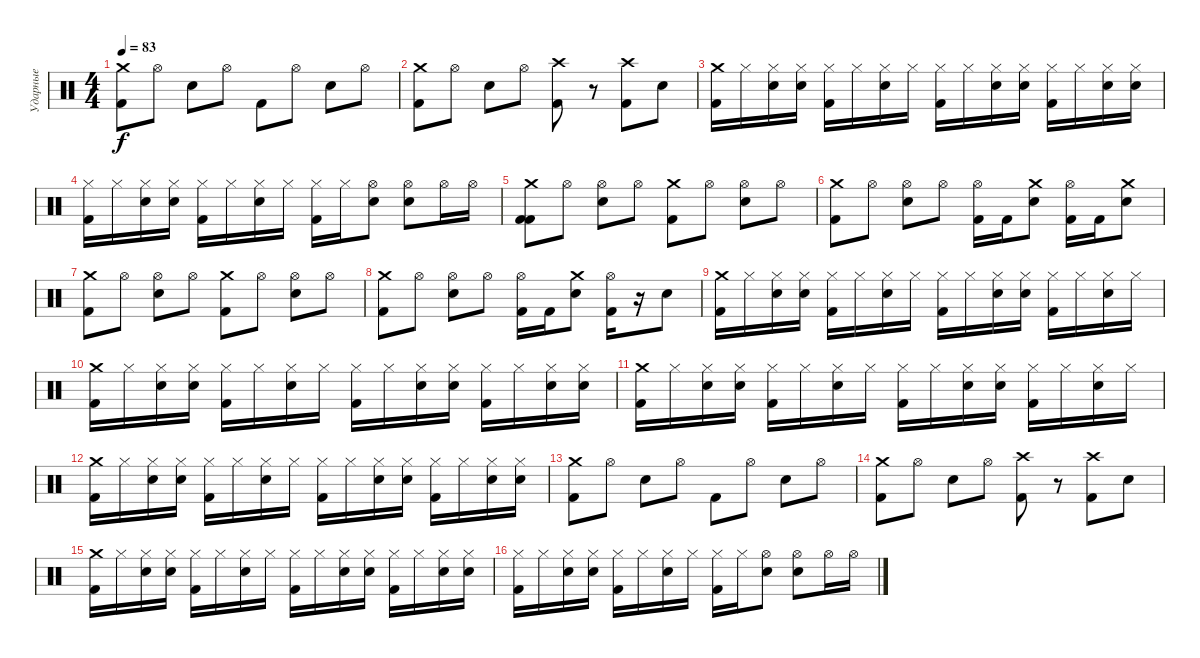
\track ("Ударные" "Ударные") {instrument percussion}
\staff {score}
\articulation defaults
\ts (4 4)
\tempo 83
\clef neutral
\ks c
("Crash medium (hit)" "Kick (hit) 2").8{dy f} "Hi-Hat (open)".8 "Snare (hit) 2".8 "Hi-Hat (open)".8 "Kick (hit) 2".8 "Hi-Hat (open)".8 "Snare (hit) 2".8 "Hi-Hat (open)".8 |
("Crash medium (hit)" "Kick (hit) 2").8 "Hi-Hat (open)".8 "Snare (hit) 2".8 "Hi-Hat (open)".8 ("Crash high (hit)" "Kick (hit) 2").8 r.8 ("Crash high (hit)" "Kick (hit) 2").8 "Snare (hit) 2".8 |
("Crash medium (hit)" "Kick (hit) 2").16 "Hi-Hat (closed)".16 ("Hi-Hat (closed)" "Snare (hit) 2").16 ("Hi-Hat (closed)" "Snare (hit) 2").16 ("Hi-Hat (closed)" "Kick (hit) 2").16 "Hi-Hat (closed)".16 ("Hi-Hat (closed)" "Snare (hit) 2").16 "Hi-Hat (closed)".16 ("Hi-Hat (closed)" "Kick (hit) 2").16 "Hi-Hat (closed)".16 ("Hi-Hat (closed)" "Snare (hit) 2").16 ("Hi-Hat (closed)" "Snare (hit) 2").16 ("Hi-Hat (closed)" "Kick (hit) 2").16 "Hi-Hat (closed)".16 ("Hi-Hat (closed)" "Snare (hit) 2").16 ("Hi-Hat (closed)" "Snare (hit) 2").16 |
("Hi-Hat (closed)" "Kick (hit) 2").16 "Hi-Hat (closed)".16 ("Hi-Hat (closed)" "Snare (hit) 2").16 ("Hi-Hat (closed)" "Snare (hit) 2").16 ("Hi-Hat (closed)" "Kick (hit) 2").16 "Hi-Hat (closed)".16 ("Hi-Hat (closed)" "Snare (hit) 2").16 "Hi-Hat (closed)".16 ("Hi-Hat (closed)" "Kick (hit) 2").16 "Hi-Hat (closed)".16 ("Hi-Hat (open)" "Snare (hit) 2").8 ("Hi-Hat (open)" "Snare (hit) 2").8 "Hi-Hat (open)".16 "Hi-Hat (open)".16 |
("Crash medium (hit)" "Kick (hit) 2" "Kick (hit) 2").8 "Hi-Hat (open)".8 ("Snare (hit) 2" "Hi-Hat (open)").8 "Hi-Hat (open)".8 ("Crash medium (hit)" "Kick (hit) 2").8 "Hi-Hat (open)".8 ("Snare (hit) 2" "Hi-Hat (open)").8 "Hi-Hat (open)".8 |
("Crash medium (hit)" "Kick (hit) 2").8 "Hi-Hat (open)".8 ("Snare (hit) 2" "Hi-Hat (open)").8 "Hi-Hat (open)".8 ("Hi-Hat (open)" "Kick (hit) 2").16 "Kick (hit) 2".16 ("Crash medium (hit)" "Snare (hit) 2").8 ("Hi-Hat (open)" "Kick (hit) 2").16 "Kick (hit) 2".16 ("Crash medium (hit)" "Snare (hit) 2").8 |
("Crash medium (hit)" "Kick (hit) 2").8 "Hi-Hat (open)".8 ("Snare (hit) 2" "Hi-Hat (open)").8 "Hi-Hat (open)".8 ("Crash medium (hit)" "Kick (hit) 2").8 "Hi-Hat (open)".8 ("Snare (hit) 2" "Hi-Hat (open)").8 "Hi-Hat (open)".8 |
("Crash medium (hit)" "Kick (hit) 2").8 "Hi-Hat (open)".8 ("Snare (hit) 2" "Hi-Hat (open)").8 "Hi-Hat (open)".8 ("Hi-Hat (open)" "Kick (hit) 2").16 "Kick (hit) 2".16 ("Crash medium (hit)" "Snare (hit) 2").8 ("Hi-Hat (open)" "Kick (hit) 2").16 r.16 "Snare (hit) 2".8 |
("Crash medium (hit)" "Kick (hit) 2").16 "Hi-Hat (closed)".16 ("Hi-Hat (closed)" "Snare (hit) 2").16 ("Hi-Hat (closed)" "Snare (hit) 2").16 ("Hi-Hat (closed)" "Kick (hit) 2").16 "Hi-Hat (closed)".16 ("Hi-Hat (closed)" "Snare (hit) 2").16 "Hi-Hat (closed)".16 ("Hi-Hat (closed)" "Kick (hit) 2").16 "Hi-Hat (closed)".16 ("Hi-Hat (closed)" "Snare (hit) 2").16 ("Hi-Hat (closed)" "Snare (hit) 2").16 ("Hi-Hat (closed)" "Kick (hit) 2").16 "Hi-Hat (closed)".16 ("Hi-Hat (closed)" "Snare (hit) 2").16 "Hi-Hat (closed)".16 |
("Crash medium (hit)" "Kick (hit) 2").16 "Hi-Hat (closed)".16 ("Hi-Hat (closed)" "Snare (hit) 2").16 ("Hi-Hat (closed)" "Snare (hit) 2").16 ("Hi-Hat (closed)" "Kick (hit) 2").16 "Hi-Hat (closed)".16 ("Hi-Hat (closed)" "Snare (hit) 2").16 "Hi-Hat (closed)".16 ("Hi-Hat (closed)" "Kick (hit) 2").16 "Hi-Hat (closed)".16 ("Hi-Hat (closed)" "Snare (hit) 2").16 ("Hi-Hat (closed)" "Snare (hit) 2").16 ("Hi-Hat (closed)" "Kick (hit) 2").16 "Hi-Hat (closed)".16 ("Hi-Hat (closed)" "Snare (hit) 2").16 ("Hi-Hat (closed)" "Snare (hit) 2").16 |
("Crash medium (hit)" "Kick (hit) 2").16 "Hi-Hat (closed)".16 ("Hi-Hat (closed)" "Snare (hit) 2").16 ("Hi-Hat (closed)" "Snare (hit) 2").16 ("Hi-Hat (closed)" "Kick (hit) 2").16 "Hi-Hat (closed)".16 ("Hi-Hat (closed)" "Snare (hit) 2").16 "Hi-Hat (closed)".16 ("Hi-Hat (closed)" "Kick (hit) 2").16 "Hi-Hat (closed)".16 ("Hi-Hat (closed)" "Snare (hit) 2").16 ("Hi-Hat (closed)" "Snare (hit) 2").16 ("Hi-Hat (closed)" "Kick (hit) 2").16 "Hi-Hat (closed)".16 ("Hi-Hat (closed)" "Snare (hit) 2").16 "Hi-Hat (closed)".16 |
("Crash medium (hit)" "Kick (hit) 2").16 "Hi-Hat (closed)".16 ("Hi-Hat (closed)" "Snare (hit) 2").16 ("Hi-Hat (closed)" "Snare (hit) 2").16 ("Hi-Hat (closed)" "Kick (hit) 2").16 "Hi-Hat (closed)".16 ("Hi-Hat (closed)" "Snare (hit) 2").16 "Hi-Hat (closed)".16 ("Hi-Hat (closed)" "Kick (hit) 2").16 "Hi-Hat (closed)".16 ("Hi-Hat (closed)" "Snare (hit) 2").16 ("Hi-Hat (closed)" "Snare (hit) 2").16 ("Hi-Hat (closed)" "Kick (hit) 2").16 "Hi-Hat (closed)".16 ("Hi-Hat (closed)" "Snare (hit) 2").16 ("Hi-Hat (closed)" "Snare (hit) 2").16 |
("Crash medium (hit)" "Kick (hit) 2").8 "Hi-Hat (open)".8 "Snare (hit) 2".8 "Hi-Hat (open)".8 "Kick (hit) 2".8 "Hi-Hat (open)".8 "Snare (hit) 2".8 "Hi-Hat (open)".8 |
("Crash medium (hit)" "Kick (hit) 2").8 "Hi-Hat (open)".8 "Snare (hit) 2".8 "Hi-Hat (open)".8 ("Crash high (hit)" "Kick (hit) 2").8 r.8 ("Crash high (hit)" "Kick (hit) 2").8 "Snare (hit) 2".8 |
("Crash medium (hit)" "Kick (hit) 2").16 "Hi-Hat (closed)".16 ("Hi-Hat (closed)" "Snare (hit) 2").16 ("Hi-Hat (closed)" "Snare (hit) 2").16 ("Hi-Hat (closed)" "Kick (hit) 2").16 "Hi-Hat (closed)".16 ("Hi-Hat (closed)" "Snare (hit) 2").16 "Hi-Hat (closed)".16 ("Hi-Hat (closed)" "Kick (hit) 2").16 "Hi-Hat (closed)".16 ("Hi-Hat (closed)" "Snare (hit) 2").16 ("Hi-Hat (closed)" "Snare (hit) 2").16 ("Hi-Hat (closed)" "Kick (hit) 2").16 "Hi-Hat (closed)".16 ("Hi-Hat (closed)" "Snare (hit) 2").16 ("Hi-Hat (closed)" "Snare (hit) 2").16 |
("Hi-Hat (closed)" "Kick (hit) 2").16 "Hi-Hat (closed)".16 ("Hi-Hat (closed)" "Snare (hit) 2").16 ("Hi-Hat (closed)" "Snare (hit) 2").16 ("Hi-Hat (closed)" "Kick (hit) 2").16 "Hi-Hat (closed)".16 ("Hi-Hat (closed)" "Snare (hit) 2").16 "Hi-Hat (closed)".16 ("Hi-Hat (closed)" "Kick (hit) 2").16 "Hi-Hat (closed)".16 ("Hi-Hat (open)" "Snare (hit) 2").8 ("Hi-Hat (open)" "Snare (hit) 2").8 "Hi-Hat (open)".16 "Hi-Hat (open)".16
